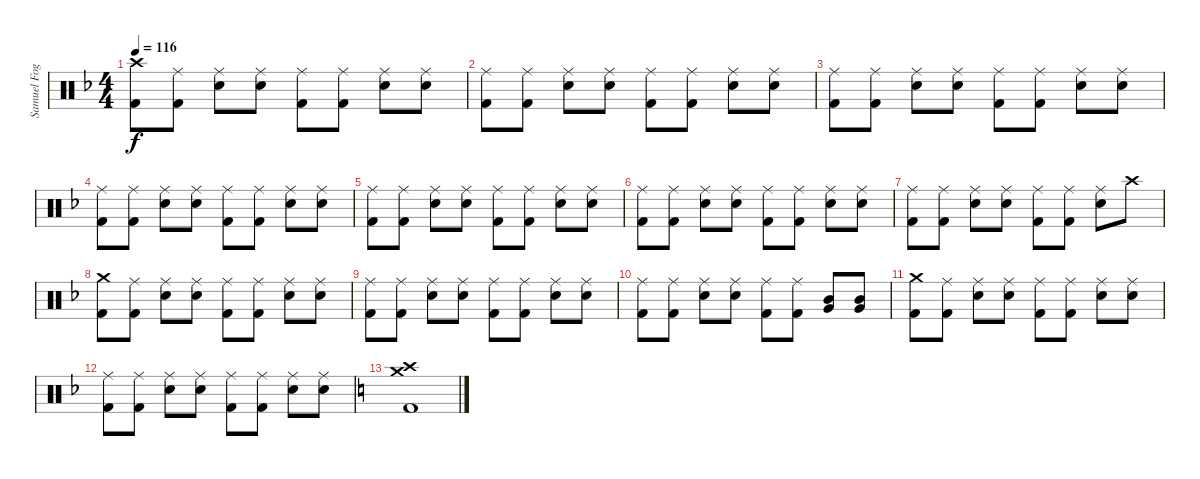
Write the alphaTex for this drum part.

\track ("Samuel Fogarino" "Samuel Fog") {instrument percussion}
\staff {score}
\articulation defaults
\ts (4 4)
\tempo 116
\clef neutral
\ks f
("Crash high (hit)" "Kick (hit) 2").8{dy f} ("Ride (middle)" "Kick (hit) 2").8 ("Ride (middle)" "Snare (hit) 2").8 ("Ride (middle)" "Snare (hit) 2").8 ("Ride (middle)" "Kick (hit) 2").8 ("Ride (middle)" "Kick (hit) 2").8 ("Ride (middle)" "Snare (hit) 2").8 ("Ride (middle)" "Snare (hit) 2").8 |
("Ride (middle)" "Kick (hit) 2").8 ("Ride (middle)" "Kick (hit) 2").8 ("Ride (middle)" "Snare (hit) 2").8 ("Ride (middle)" "Snare (hit) 2").8 ("Ride (middle)" "Kick (hit) 2").8 ("Ride (middle)" "Kick (hit) 2").8 ("Ride (middle)" "Snare (hit) 2").8 ("Ride (middle)" "Snare (hit) 2").8 |
("Ride (middle)" "Kick (hit) 2").8 ("Ride (middle)" "Kick (hit) 2").8 ("Ride (middle)" "Snare (hit) 2").8 ("Ride (middle)" "Snare (hit) 2").8 ("Ride (middle)" "Kick (hit) 2").8 ("Ride (middle)" "Kick (hit) 2").8 ("Ride (middle)" "Snare (hit) 2").8 ("Ride (middle)" "Snare (hit) 2").8 |
("Ride (middle)" "Kick (hit) 2").8 ("Ride (middle)" "Kick (hit) 2").8 ("Ride (middle)" "Snare (hit) 2").8 ("Ride (middle)" "Snare (hit) 2").8 ("Ride (middle)" "Kick (hit) 2").8 ("Ride (middle)" "Kick (hit) 2").8 ("Ride (middle)" "Snare (hit) 2").8 ("Ride (middle)" "Snare (hit) 2").8 |
("Ride (middle)" "Kick (hit) 2").8 ("Ride (middle)" "Kick (hit) 2").8 ("Ride (middle)" "Snare (hit) 2").8 ("Ride (middle)" "Snare (hit) 2").8 ("Ride (middle)" "Kick (hit) 2").8 ("Ride (middle)" "Kick (hit) 2").8 ("Ride (middle)" "Snare (hit) 2").8 ("Ride (middle)" "Snare (hit) 2").8 |
("Ride (middle)" "Kick (hit) 2").8 ("Ride (middle)" "Kick (hit) 2").8 ("Ride (middle)" "Snare (hit) 2").8 ("Ride (middle)" "Snare (hit) 2").8 ("Ride (middle)" "Kick (hit) 2").8 ("Ride (middle)" "Kick (hit) 2").8 ("Ride (middle)" "Snare (hit) 2").8 ("Ride (middle)" "Snare (hit) 2").8 |
("Ride (middle)" "Kick (hit) 2").8 ("Ride (middle)" "Kick (hit) 2").8 ("Ride (middle)" "Snare (hit) 2").8 ("Ride (middle)" "Snare (hit) 2").8 ("Ride (middle)" "Kick (hit) 2").8 ("Ride (middle)" "Kick (hit) 2").8 ("Ride (middle)" "Snare (hit) 2").8 "Crash high (hit)".8 |
("Crash medium (hit)" "Kick (hit) 2").8 ("Ride (middle)" "Kick (hit) 2").8 ("Ride (middle)" "Snare (hit) 2").8 ("Ride (middle)" "Snare (hit) 2").8 ("Ride (middle)" "Kick (hit) 2").8 ("Ride (middle)" "Kick (hit) 2").8 ("Ride (middle)" "Snare (hit) 2").8 ("Ride (middle)" "Snare (hit) 2").8 |
("Ride (middle)" "Kick (hit) 2").8 ("Ride (middle)" "Kick (hit) 2").8 ("Ride (middle)" "Snare (hit) 2").8 ("Ride (middle)" "Snare (hit) 2").8 ("Ride (middle)" "Kick (hit) 2").8 ("Ride (middle)" "Kick (hit) 2").8 ("Ride (middle)" "Snare (hit) 2").8 ("Ride (middle)" "Snare (hit) 2").8 |
("Ride (middle)" "Kick (hit) 2").8 ("Ride (middle)" "Kick (hit) 2").8 ("Ride (middle)" "Snare (hit) 2").8 ("Ride (middle)" "Snare (hit) 2").8 ("Ride (middle)" "Kick (hit) 2").8 ("Ride (middle)" "Kick (hit) 2").8 ("Mid Tom (hit)" "Very Low Tom (hit)").8 ("Mid Tom (hit)" "Very Low Tom (hit)").8 |
("Crash medium (hit)" "Kick (hit) 2").8 ("Ride (middle)" "Kick (hit) 2").8 ("Ride (middle)" "Snare (hit) 2").8 ("Ride (middle)" "Snare (hit) 2").8 ("Ride (middle)" "Kick (hit) 2").8 ("Ride (middle)" "Kick (hit) 2").8 ("Ride (middle)" "Snare (hit) 2").8 ("Ride (middle)" "Snare (hit) 2").8 |
("Ride (middle)" "Kick (hit) 2").8 ("Ride (middle)" "Kick (hit) 2").8 ("Ride (middle)" "Snare (hit) 2").8 ("Ride (middle)" "Snare (hit) 2").8 ("Ride (middle)" "Kick (hit) 2").8 ("Ride (middle)" "Kick (hit) 2").8 ("Ride (middle)" "Snare (hit) 2").8 ("Ride (middle)" "Snare (hit) 2").8 |
\ks c
("Crash high (hit)" "Crash medium (hit)" "Kick (hit) 2").1
